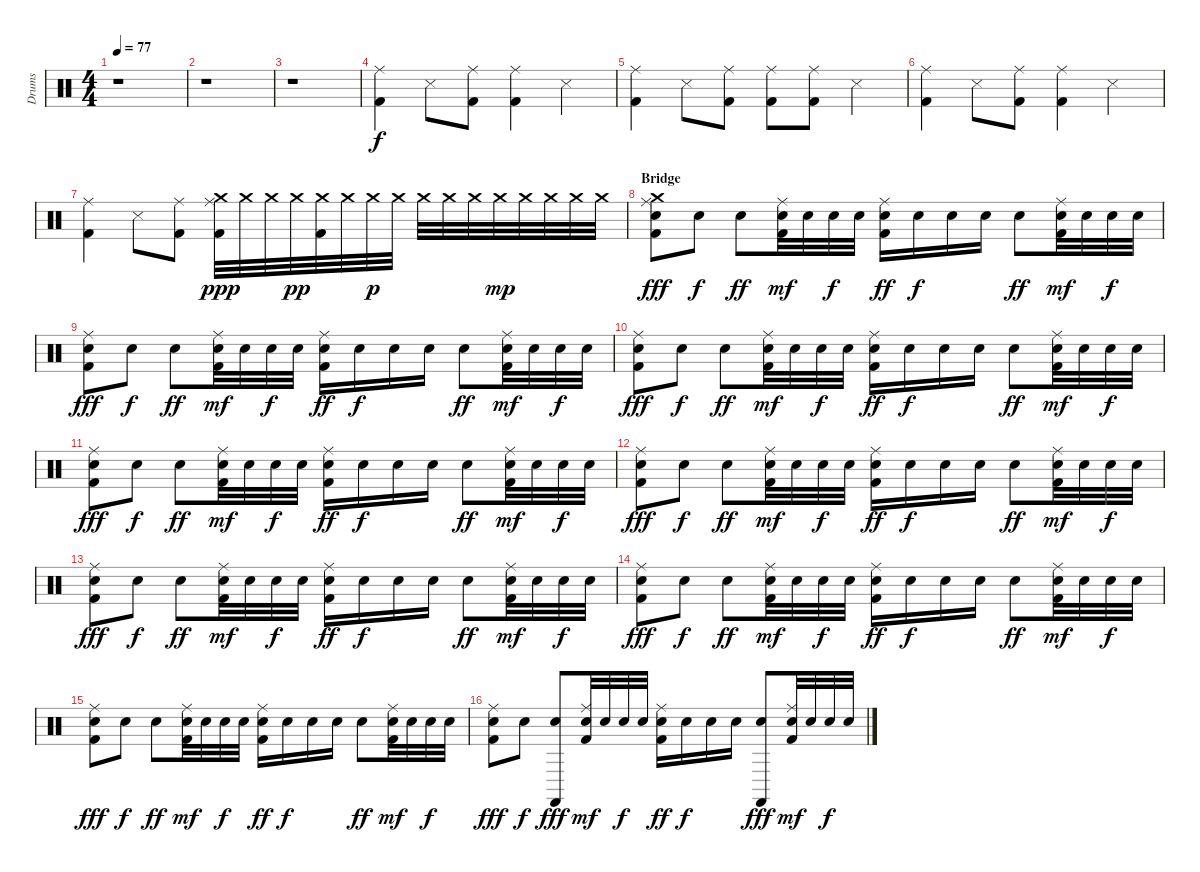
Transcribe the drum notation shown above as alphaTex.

\track ("Drums" "Drums") {instrument percussion}
\staff {score}
\articulation defaults
\ts (4 4)
\tempo 77
\clef neutral
\ks c
r.1{dy mp} |
r.1 |
r.1 |
("Ride (middle)" "Kick (hit) 2").4{dy f} "Snare (side stick) 3".8 ("Ride (middle)" "Kick (hit) 2").8 ("Ride (middle)" "Kick (hit) 2").4 "Snare (side stick) 3".4 |
("Ride (middle)" "Kick (hit) 2").4 "Snare (side stick) 3".8 ("Ride (middle)" "Kick (hit) 2").8 ("Ride (middle)" "Kick (hit) 2").8 ("Ride (middle)" "Kick (hit) 2").8 "Snare (side stick) 3".4 |
("Ride (middle)" "Kick (hit) 2").4 "Snare (side stick) 3".8 ("Ride (middle)" "Kick (hit) 2").8 ("Ride (middle)" "Kick (hit) 2").4 "Snare (side stick) 3".4 |
("Ride (middle)" "Kick (hit) 2").4 "Snare (side stick) 3".8 ("Ride (middle)" "Kick (hit) 2").8 ("Crash medium (hit)" "Ride (middle)" "Kick (hit) 2").32{dy ppp} "Crash medium (hit)".32 "Crash medium (hit)".32 "Crash medium (hit)".32{dy pp} ("Crash medium (hit)" "Kick (hit) 2").32 "Crash medium (hit)".32 "Crash medium (hit)".32{dy p} "Crash medium (hit)".32 "Crash medium (hit)".32 "Crash medium (hit)".32 "Crash medium (hit)".32 "Crash medium (hit)".32{dy mp} "Crash medium (hit)".32 "Crash medium (hit)".32 "Crash medium (hit)".32 "Crash medium (hit)".32 |
\section ("" "Bridge")
("Crash medium (hit)" "Ride (middle)" "Snare (hit) 2" "Kick (hit) 2").8{dy fff} "Snare (hit) 2".8{dy f} "Snare (hit) 2".8{dy ff} ("Ride (middle)" "Snare (hit) 2" "Kick (hit) 2").32{dy mf} "Snare (hit) 2".32 "Snare (hit) 2".32{dy f} "Snare (hit) 2".32 ("Ride (middle)" "Snare (hit) 2" "Kick (hit) 2").16{dy ff} "Snare (hit) 2".16{dy f} "Snare (hit) 2".16 "Snare (hit) 2".16 "Snare (hit) 2".8{dy ff} ("Ride (middle)" "Snare (hit) 2" "Kick (hit) 2").32{dy mf} "Snare (hit) 2".32 "Snare (hit) 2".32{dy f} "Snare (hit) 2".32 |
("Ride (middle)" "Snare (hit) 2" "Kick (hit) 2").8{dy fff} "Snare (hit) 2".8{dy f} "Snare (hit) 2".8{dy ff} ("Ride (middle)" "Snare (hit) 2" "Kick (hit) 2").32{dy mf} "Snare (hit) 2".32 "Snare (hit) 2".32{dy f} "Snare (hit) 2".32 ("Ride (middle)" "Snare (hit) 2" "Kick (hit) 2").16{dy ff} "Snare (hit) 2".16{dy f} "Snare (hit) 2".16 "Snare (hit) 2".16 "Snare (hit) 2".8{dy ff} ("Ride (middle)" "Snare (hit) 2" "Kick (hit) 2").32{dy mf} "Snare (hit) 2".32 "Snare (hit) 2".32{dy f} "Snare (hit) 2".32 |
("Ride (middle)" "Snare (hit) 2" "Kick (hit) 2").8{dy fff} "Snare (hit) 2".8{dy f} "Snare (hit) 2".8{dy ff} ("Ride (middle)" "Snare (hit) 2" "Kick (hit) 2").32{dy mf} "Snare (hit) 2".32 "Snare (hit) 2".32{dy f} "Snare (hit) 2".32 ("Ride (middle)" "Snare (hit) 2" "Kick (hit) 2").16{dy ff} "Snare (hit) 2".16{dy f} "Snare (hit) 2".16 "Snare (hit) 2".16 "Snare (hit) 2".8{dy ff} ("Ride (middle)" "Snare (hit) 2" "Kick (hit) 2").32{dy mf} "Snare (hit) 2".32 "Snare (hit) 2".32{dy f} "Snare (hit) 2".32 |
("Ride (middle)" "Snare (hit) 2" "Kick (hit) 2").8{dy fff} "Snare (hit) 2".8{dy f} "Snare (hit) 2".8{dy ff} ("Ride (middle)" "Snare (hit) 2" "Kick (hit) 2").32{dy mf} "Snare (hit) 2".32 "Snare (hit) 2".32{dy f} "Snare (hit) 2".32 ("Ride (middle)" "Snare (hit) 2" "Kick (hit) 2").16{dy ff} "Snare (hit) 2".16{dy f} "Snare (hit) 2".16 "Snare (hit) 2".16 "Snare (hit) 2".8{dy ff} ("Ride (middle)" "Snare (hit) 2" "Kick (hit) 2").32{dy mf} "Snare (hit) 2".32 "Snare (hit) 2".32{dy f} "Snare (hit) 2".32 |
("Ride (middle)" "Snare (hit) 2" "Kick (hit) 2").8{dy fff} "Snare (hit) 2".8{dy f} "Snare (hit) 2".8{dy ff} ("Ride (middle)" "Snare (hit) 2" "Kick (hit) 2").32{dy mf} "Snare (hit) 2".32 "Snare (hit) 2".32{dy f} "Snare (hit) 2".32 ("Ride (middle)" "Snare (hit) 2" "Kick (hit) 2").16{dy ff} "Snare (hit) 2".16{dy f} "Snare (hit) 2".16 "Snare (hit) 2".16 "Snare (hit) 2".8{dy ff} ("Ride (middle)" "Snare (hit) 2" "Kick (hit) 2").32{dy mf} "Snare (hit) 2".32 "Snare (hit) 2".32{dy f} "Snare (hit) 2".32 |
("Ride (middle)" "Snare (hit) 2" "Kick (hit) 2").8{dy fff} "Snare (hit) 2".8{dy f} "Snare (hit) 2".8{dy ff} ("Ride (middle)" "Snare (hit) 2" "Kick (hit) 2").32{dy mf} "Snare (hit) 2".32 "Snare (hit) 2".32{dy f} "Snare (hit) 2".32 ("Ride (middle)" "Snare (hit) 2" "Kick (hit) 2").16{dy ff} "Snare (hit) 2".16{dy f} "Snare (hit) 2".16 "Snare (hit) 2".16 "Snare (hit) 2".8{dy ff} ("Ride (middle)" "Snare (hit) 2" "Kick (hit) 2").32{dy mf} "Snare (hit) 2".32 "Snare (hit) 2".32{dy f} "Snare (hit) 2".32 |
("Ride (middle)" "Snare (hit) 2" "Kick (hit) 2").8{dy fff} "Snare (hit) 2".8{dy f} "Snare (hit) 2".8{dy ff} ("Ride (middle)" "Snare (hit) 2" "Kick (hit) 2").32{dy mf} "Snare (hit) 2".32 "Snare (hit) 2".32{dy f} "Snare (hit) 2".32 ("Ride (middle)" "Snare (hit) 2" "Kick (hit) 2").16{dy ff} "Snare (hit) 2".16{dy f} "Snare (hit) 2".16 "Snare (hit) 2".16 "Snare (hit) 2".8{dy ff} ("Ride (middle)" "Snare (hit) 2" "Kick (hit) 2").32{dy mf} "Snare (hit) 2".32 "Snare (hit) 2".32{dy f} "Snare (hit) 2".32 |
("Ride (middle)" "Snare (hit) 2" "Kick (hit) 2").8{dy fff} "Snare (hit) 2".8{dy f} "Snare (hit) 2".8{dy ff} ("Ride (middle)" "Snare (hit) 2" "Kick (hit) 2").32{dy mf} "Snare (hit) 2".32 "Snare (hit) 2".32{dy f} "Snare (hit) 2".32 ("Ride (middle)" "Snare (hit) 2" "Kick (hit) 2").16{dy ff} "Snare (hit) 2".16{dy f} "Snare (hit) 2".16 "Snare (hit) 2".16 "Snare (hit) 2".8{dy ff} ("Ride (middle)" "Snare (hit) 2" "Kick (hit) 2").32{dy mf} "Snare (hit) 2".32 "Snare (hit) 2".32{dy f} "Snare (hit) 2".32 |
("Ride (middle)" "Snare (hit) 2" "Kick (hit) 2").8{dy fff} "Snare (hit) 2".8{dy f} ("Snare (hit) 2" "Castanets (hit)").8{dy fff} ("Ride (middle)" "Snare (hit) 2" "Kick (hit) 2").32{dy mf} "Snare (hit) 2".32 "Snare (hit) 2".32{dy f} "Snare (hit) 2".32 ("Ride (middle)" "Snare (hit) 2" "Kick (hit) 2").16{dy ff} "Snare (hit) 2".16{dy f} "Snare (hit) 2".16 "Snare (hit) 2".16 ("Snare (hit) 2" "Castanets (hit)").8{dy fff} ("Ride (middle)" "Snare (hit) 2" "Kick (hit) 2").32{dy mf} "Snare (hit) 2".32 "Snare (hit) 2".32{dy f} "Snare (hit) 2".32
